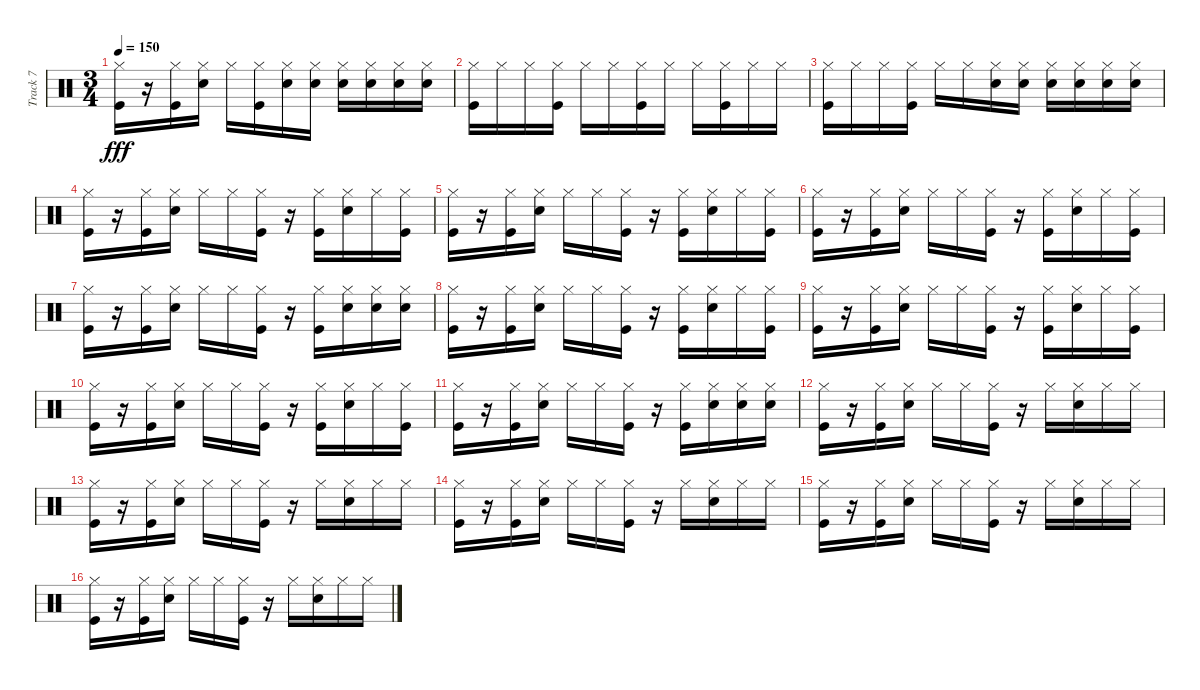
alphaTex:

\track ("Track 7" "Track 7") {instrument percussion}
\staff {score}
\articulation defaults
\ts (3 4)
\tempo 150
\clef neutral
\ks c
("Kick (hit)" "Hi-Hat (closed)").16{dy fff} r.16 ("Kick (hit)" "Hi-Hat (closed)").16 ("Snare (hit) 2" "Hi-Hat (closed)").16 "Hi-Hat (closed)".16 ("Kick (hit)" "Hi-Hat (closed)").16 ("Snare (hit) 2" "Hi-Hat (closed)").16 ("Snare (hit) 2" "Hi-Hat (closed)").16 ("Snare (hit) 2" "Hi-Hat (closed)").16 ("Snare (hit) 2" "Hi-Hat (closed)").16 ("Snare (hit) 2" "Hi-Hat (closed)").16 ("Snare (hit) 2" "Hi-Hat (closed)").16 |
("Kick (hit)" "Hi-Hat (closed)").16 "Hi-Hat (closed)".16 "Hi-Hat (closed)".16 ("Kick (hit)" "Hi-Hat (closed)").16 "Hi-Hat (closed)".16 "Hi-Hat (closed)".16 ("Kick (hit)" "Hi-Hat (closed)").16 "Hi-Hat (closed)".16 "Hi-Hat (closed)".16 ("Kick (hit)" "Hi-Hat (closed)").16 "Hi-Hat (closed)".16 "Hi-Hat (closed)".16 |
("Kick (hit)" "Hi-Hat (closed)").16 "Hi-Hat (closed)".16 "Hi-Hat (closed)".16 ("Kick (hit)" "Hi-Hat (closed)").16 "Hi-Hat (closed)".16 "Hi-Hat (closed)".16 ("Snare (hit) 2" "Hi-Hat (closed)").16 ("Snare (hit) 2" "Hi-Hat (closed)").16 ("Snare (hit) 2" "Hi-Hat (closed)").16 ("Snare (hit) 2" "Hi-Hat (closed)").16 ("Snare (hit) 2" "Hi-Hat (closed)").16 ("Snare (hit) 2" "Hi-Hat (closed)").16 |
("Kick (hit)" "Hi-Hat (closed)").16 r.16 ("Kick (hit)" "Hi-Hat (closed)").16 ("Snare (hit) 2" "Hi-Hat (closed)").16 "Hi-Hat (closed)".16 "Hi-Hat (closed)".16 ("Kick (hit)" "Hi-Hat (closed)").16 r.16 ("Kick (hit)" "Hi-Hat (closed)").16 ("Snare (hit) 2" "Hi-Hat (closed)").16 "Hi-Hat (closed)".16 ("Kick (hit)" "Hi-Hat (closed)").16 |
("Kick (hit)" "Hi-Hat (closed)").16 r.16 ("Kick (hit)" "Hi-Hat (closed)").16 ("Snare (hit) 2" "Hi-Hat (closed)").16 "Hi-Hat (closed)".16 "Hi-Hat (closed)".16 ("Kick (hit)" "Hi-Hat (closed)").16 r.16 ("Kick (hit)" "Hi-Hat (closed)").16 ("Snare (hit) 2" "Hi-Hat (closed)").16 "Hi-Hat (closed)".16 ("Kick (hit)" "Hi-Hat (closed)").16 |
("Kick (hit)" "Hi-Hat (closed)").16 r.16 ("Kick (hit)" "Hi-Hat (closed)").16 ("Snare (hit) 2" "Hi-Hat (closed)").16 "Hi-Hat (closed)".16 "Hi-Hat (closed)".16 ("Kick (hit)" "Hi-Hat (closed)").16 r.16 ("Kick (hit)" "Hi-Hat (closed)").16 ("Snare (hit) 2" "Hi-Hat (closed)").16 "Hi-Hat (closed)".16 ("Kick (hit)" "Hi-Hat (closed)").16 |
("Kick (hit)" "Hi-Hat (closed)").16 r.16 ("Kick (hit)" "Hi-Hat (closed)").16 ("Snare (hit) 2" "Hi-Hat (closed)").16 "Hi-Hat (closed)".16 "Hi-Hat (closed)".16 ("Kick (hit)" "Hi-Hat (closed)").16 r.16 ("Kick (hit)" "Hi-Hat (closed)").16 ("Snare (hit) 2" "Hi-Hat (closed)").16 ("Snare (hit) 2" "Hi-Hat (closed)").16 ("Snare (hit) 2" "Hi-Hat (closed)").16 |
("Kick (hit)" "Hi-Hat (closed)").16 r.16 ("Kick (hit)" "Hi-Hat (closed)").16 ("Snare (hit) 2" "Hi-Hat (closed)").16 "Hi-Hat (closed)".16 "Hi-Hat (closed)".16 ("Kick (hit)" "Hi-Hat (closed)").16 r.16 ("Kick (hit)" "Hi-Hat (closed)").16 ("Snare (hit) 2" "Hi-Hat (closed)").16 "Hi-Hat (closed)".16 ("Kick (hit)" "Hi-Hat (closed)").16 |
("Kick (hit)" "Hi-Hat (closed)").16 r.16 ("Kick (hit)" "Hi-Hat (closed)").16 ("Snare (hit) 2" "Hi-Hat (closed)").16 "Hi-Hat (closed)".16 "Hi-Hat (closed)".16 ("Kick (hit)" "Hi-Hat (closed)").16 r.16 ("Kick (hit)" "Hi-Hat (closed)").16 ("Snare (hit) 2" "Hi-Hat (closed)").16 "Hi-Hat (closed)".16 ("Kick (hit)" "Hi-Hat (closed)").16 |
("Kick (hit)" "Hi-Hat (closed)").16 r.16 ("Kick (hit)" "Hi-Hat (closed)").16 ("Snare (hit) 2" "Hi-Hat (closed)").16 "Hi-Hat (closed)".16 "Hi-Hat (closed)".16 ("Kick (hit)" "Hi-Hat (closed)").16 r.16 ("Kick (hit)" "Hi-Hat (closed)").16 ("Snare (hit) 2" "Hi-Hat (closed)").16 "Hi-Hat (closed)".16 ("Kick (hit)" "Hi-Hat (closed)").16 |
("Kick (hit)" "Hi-Hat (closed)").16 r.16 ("Kick (hit)" "Hi-Hat (closed)").16 ("Snare (hit) 2" "Hi-Hat (closed)").16 "Hi-Hat (closed)".16 "Hi-Hat (closed)".16 ("Kick (hit)" "Hi-Hat (closed)").16 r.16 ("Kick (hit)" "Hi-Hat (closed)").16 ("Snare (hit) 2" "Hi-Hat (closed)").16 ("Snare (hit) 2" "Hi-Hat (closed)").16 ("Snare (hit) 2" "Hi-Hat (closed)").16 |
("Kick (hit)" "Hi-Hat (closed)").16 r.16 ("Kick (hit)" "Hi-Hat (closed)").16 ("Snare (hit) 2" "Hi-Hat (closed)").16 "Hi-Hat (closed)".16 "Hi-Hat (closed)".16 ("Kick (hit)" "Hi-Hat (closed)").16 r.16 "Hi-Hat (closed)".16 ("Snare (hit) 2" "Hi-Hat (closed)").16 "Hi-Hat (closed)".16 "Hi-Hat (closed)".16 |
("Kick (hit)" "Hi-Hat (closed)").16 r.16 ("Kick (hit)" "Hi-Hat (closed)").16 ("Snare (hit) 2" "Hi-Hat (closed)").16 "Hi-Hat (closed)".16 "Hi-Hat (closed)".16 ("Kick (hit)" "Hi-Hat (closed)").16 r.16 "Hi-Hat (closed)".16 ("Snare (hit) 2" "Hi-Hat (closed)").16 "Hi-Hat (closed)".16 "Hi-Hat (closed)".16 |
("Kick (hit)" "Hi-Hat (closed)").16 r.16 ("Kick (hit)" "Hi-Hat (closed)").16 ("Snare (hit) 2" "Hi-Hat (closed)").16 "Hi-Hat (closed)".16 "Hi-Hat (closed)".16 ("Kick (hit)" "Hi-Hat (closed)").16 r.16 "Hi-Hat (closed)".16 ("Snare (hit) 2" "Hi-Hat (closed)").16 "Hi-Hat (closed)".16 "Hi-Hat (closed)".16 |
("Kick (hit)" "Hi-Hat (closed)").16 r.16 ("Kick (hit)" "Hi-Hat (closed)").16 ("Snare (hit) 2" "Hi-Hat (closed)").16 "Hi-Hat (closed)".16 "Hi-Hat (closed)".16 ("Kick (hit)" "Hi-Hat (closed)").16 r.16 "Hi-Hat (closed)".16 ("Snare (hit) 2" "Hi-Hat (closed)").16 "Hi-Hat (closed)".16 "Hi-Hat (closed)".16 |
("Kick (hit)" "Hi-Hat (closed)").16 r.16 ("Kick (hit)" "Hi-Hat (closed)").16 ("Snare (hit) 2" "Hi-Hat (closed)").16 "Hi-Hat (closed)".16 "Hi-Hat (closed)".16 ("Kick (hit)" "Hi-Hat (closed)").16 r.16 "Hi-Hat (closed)".16 ("Snare (hit) 2" "Hi-Hat (closed)").16 "Hi-Hat (closed)".16 "Hi-Hat (closed)".16
